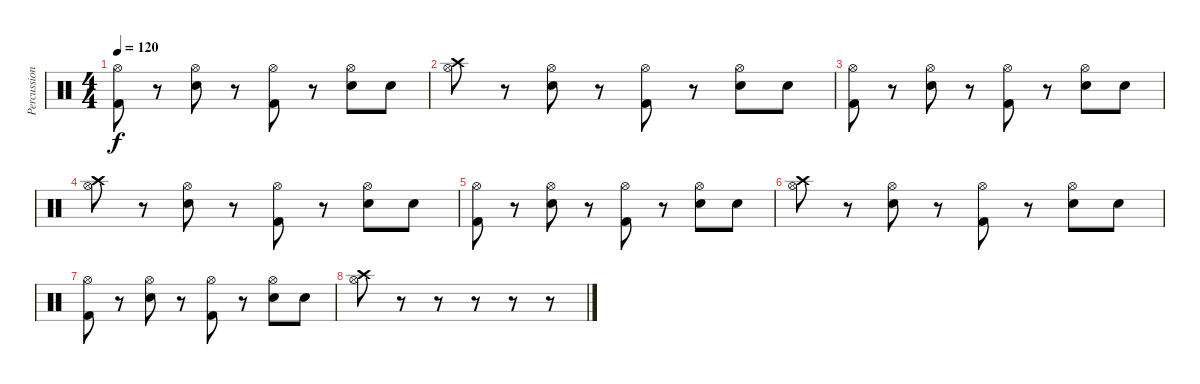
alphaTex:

\track ("Percussion" "Percussion") {instrument percussion}
\staff {score}
\articulation defaults
\ts (4 4)
\tempo 120
\clef neutral
\ks c
("Kick (hit) 2" "Hi-Hat (open)").8{dy f} r.8 ("Electric Snare (hit)" "Hi-Hat (open)").8 r.8 ("Kick (hit) 2" "Hi-Hat (open)").8 r.8 ("Electric Snare (hit)" "Hi-Hat (open)").8 "Snare (hit)".8 |
("Crash high (hit)" "Hi-Hat (open)").8 r.8 ("Electric Snare (hit)" "Hi-Hat (open)").8 r.8 ("Kick (hit) 2" "Hi-Hat (open)").8 r.8 ("Electric Snare (hit)" "Hi-Hat (open)").8 "Snare (hit)".8 |
("Kick (hit) 2" "Hi-Hat (open)").8 r.8 ("Electric Snare (hit)" "Hi-Hat (open)").8 r.8 ("Kick (hit) 2" "Hi-Hat (open)").8 r.8 ("Electric Snare (hit)" "Hi-Hat (open)").8 "Snare (hit)".8 |
("Crash high (hit)" "Hi-Hat (open)").8 r.8 ("Electric Snare (hit)" "Hi-Hat (open)").8 r.8 ("Kick (hit) 2" "Hi-Hat (open)").8 r.8 ("Electric Snare (hit)" "Hi-Hat (open)").8 "Snare (hit)".8 |
("Kick (hit) 2" "Hi-Hat (open)").8 r.8 ("Electric Snare (hit)" "Hi-Hat (open)").8 r.8 ("Kick (hit) 2" "Hi-Hat (open)").8 r.8 ("Electric Snare (hit)" "Hi-Hat (open)").8 "Snare (hit)".8 |
("Crash high (hit)" "Hi-Hat (open)").8 r.8 ("Electric Snare (hit)" "Hi-Hat (open)").8 r.8 ("Kick (hit) 2" "Hi-Hat (open)").8 r.8 ("Electric Snare (hit)" "Hi-Hat (open)").8 "Snare (hit)".8 |
("Kick (hit) 2" "Hi-Hat (open)").8 r.8 ("Electric Snare (hit)" "Hi-Hat (open)").8 r.8 ("Kick (hit) 2" "Hi-Hat (open)").8 r.8 ("Electric Snare (hit)" "Hi-Hat (open)").8 "Snare (hit)".8 |
("Crash high (hit)" "Hi-Hat (open)").8 r.8 r.8 r.8 r.8 r.8
